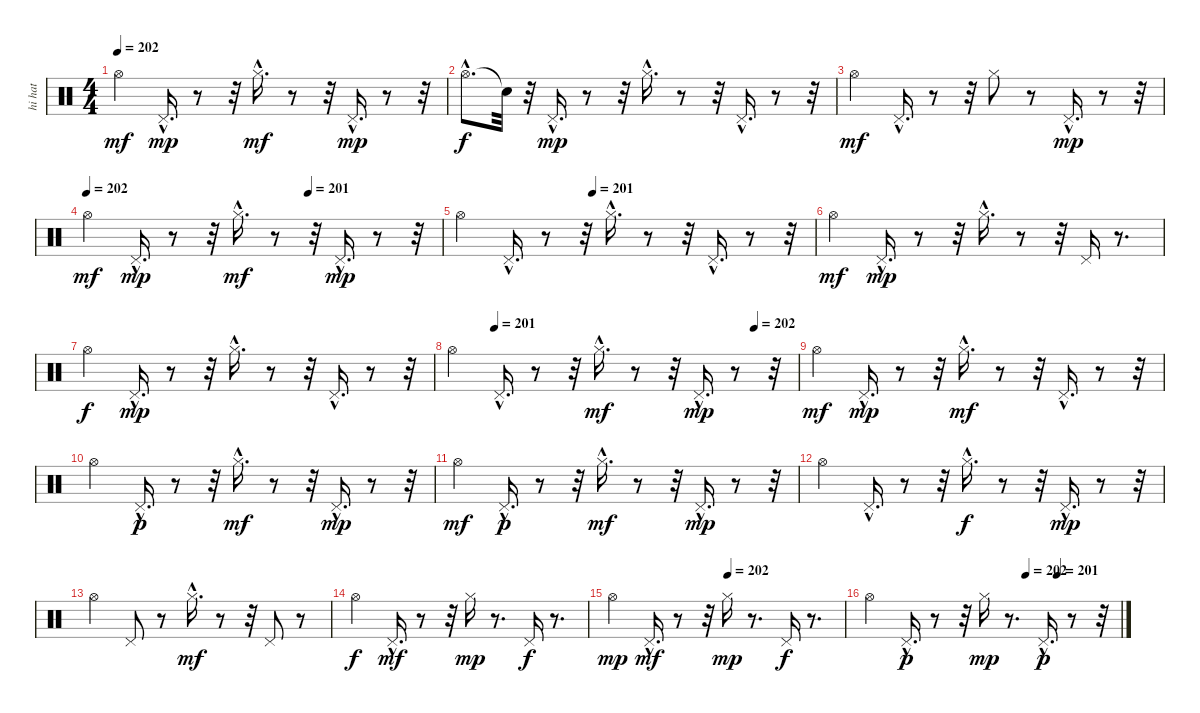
\track ("hi hat" "hi hat") {instrument percussion}
\staff {score}
\articulation defaults
\ts (4 4)
\tempo 202
\clef neutral
\ks c "Hi-Hat (open)".4{dy mf} "Pedal Hi-Hat (hit)"{hac}.16{d dy mp}
r.8 r.32 "Hi-Hat (closed)"{hac}.16{d dy mf} r.8 r.32 "Pedal Hi-Hat (hit)"{hac}.16{d dy mp} r.8 r.32 |
"Hi-Hat (open)"{hac}.8{d dy f} "Snare (hit)"{t}.32 r.32 "Pedal Hi-Hat (hit)"{hac}.16{d dy mp} r.8 r.32 "Hi-Hat (closed)"{hac}.16{d} r.8 r.32 "Pedal Hi-Hat (hit)"{hac}.16{d} r.8 r.32 |
"Hi-Hat (open)".4{dy mf} "Pedal Hi-Hat (hit)"{hac}.16{d} r.8 r.32 "Hi-Hat (closed)".8 r.8 "Pedal Hi-Hat (hit)"{hac}.16{d dy mp} r.8 r.32 |
\tempo 202
\tempo (201 0.625)
"Hi-Hat (open)".4{dy mf} "Pedal Hi-Hat (hit)"{hac}.16{d dy mp} r.8 r.32 "Hi-Hat (closed)"{hac}.16{d dy mf} r.8 r.32 "Pedal Hi-Hat (hit)"{hac}.16{d dy mp} r.8 r.32 |
\tempo (201 0.375)
"Hi-Hat (open)".4 "Pedal Hi-Hat (hit)"{hac}.16{d} r.8 r.32 "Hi-Hat (closed)"{hac}.16{d} r.8 r.32 "Pedal Hi-Hat (hit)"{hac}.16{d} r.8 r.32 |
"Hi-Hat (open)".4{dy mf} "Pedal Hi-Hat (hit)"{hac}.16{d dy mp} r.8 r.32 "Hi-Hat (closed)"{hac}.16{d} r.8 r.32 "Pedal Hi-Hat (hit)".16 r.8{d} |
"Hi-Hat (open)".4{dy f} "Pedal Hi-Hat (hit)"{hac}.16{d dy mp} r.8 r.32 "Hi-Hat (closed)"{hac}.16{d} r.8 r.32 "Pedal Hi-Hat (hit)"{hac}.16{d} r.8 r.32 |
\tempo (201 0.125)
\tempo (202 0.875)
"Hi-Hat (open)".4 "Pedal Hi-Hat (hit)"{hac}.16{d} r.8 r.32 "Hi-Hat (closed)"{hac}.16{d dy mf} r.8 r.32 "Pedal Hi-Hat (hit)"{hac}.16{d dy mp} r.8 r.32 |
"Hi-Hat (open)".4{dy mf} "Pedal Hi-Hat (hit)"{hac}.16{d dy mp} r.8 r.32 "Hi-Hat (closed)"{hac}.16{d dy mf} r.8 r.32 "Pedal Hi-Hat (hit)"{hac}.16{d} r.8 r.32 |
"Hi-Hat (open)".4 "Pedal Hi-Hat (hit)"{hac}.16{d dy p} r.8 r.32 "Hi-Hat (closed)"{hac}.16{d dy mf} r.8 r.32 "Pedal Hi-Hat (hit)"{hac}.16{d dy mp} r.8 r.32 |
"Hi-Hat (open)".4{dy mf} "Pedal Hi-Hat (hit)"{hac}.16{d dy p} r.8 r.32 "Hi-Hat (closed)"{hac}.16{d dy mf} r.8 r.32 "Pedal Hi-Hat (hit)"{hac}.16{d dy mp} r.8 r.32 |
"Hi-Hat (open)".4 "Pedal Hi-Hat (hit)"{hac}.16{d} r.8 r.32 "Hi-Hat (closed)"{hac}.16{d dy f} r.8 r.32 "Pedal Hi-Hat (hit)"{hac}.16{d dy mp} r.8 r.32 |
"Hi-Hat (open)".4 "Pedal Hi-Hat (hit)".8 r.8 "Hi-Hat (closed)"{hac}.16{d dy mf} r.8 r.32 "Pedal Hi-Hat (hit)".8 r.8 |
"Hi-Hat (open)".4{dy f} "Pedal Hi-Hat (hit)"{hac}.16{d dy mf} r.8 r.32 "Hi-Hat (closed)".16{dy mp} r.8{d} "Pedal Hi-Hat (hit)".16{dy f} r.8{d} |
\tempo (202 0.5)
"Hi-Hat (open)".4{dy mp} "Pedal Hi-Hat (hit)"{hac}.16{d dy mf} r.8 r.32 "Hi-Hat (closed)".16{dy mp} r.8{d} "Pedal Hi-Hat (hit)".16{dy f} r.8{d} |
\tempo (202 0.625)
\tempo (201 0.75)
"Hi-Hat (open)".4 "Pedal Hi-Hat (hit)"{hac}.16{d dy p} r.8 r.32 "Hi-Hat (closed)".16{dy mp} r.8{d} "Pedal Hi-Hat (hit)"{hac}.16{d dy p} r.8 r.32
